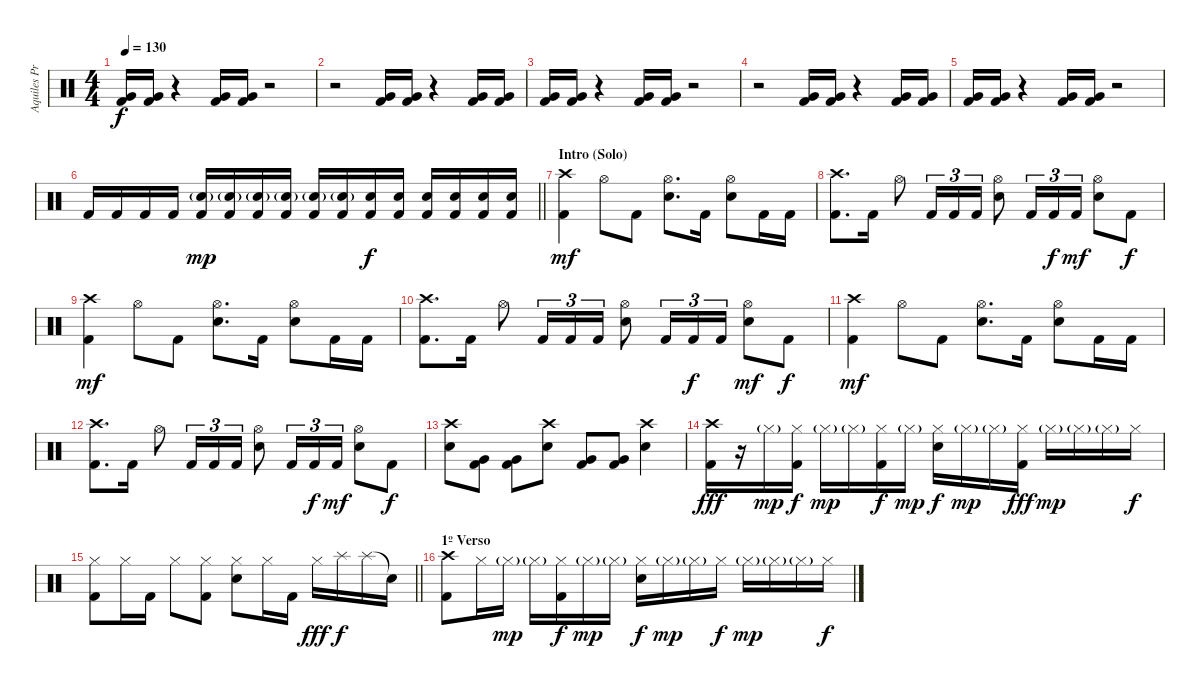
\track ("Aquiles Priester" "Aquiles Pr") {instrument percussion}
\staff {score}
\articulation defaults
\ts (4 4)
\tempo 130
\clef neutral
\ks c
("Very Low Tom (hit)" "Kick (hit) 2").16{dy f} ("Very Low Tom (hit)" "Kick (hit) 2").16 r.4 ("Very Low Tom (hit)" "Kick (hit) 2").16 ("Very Low Tom (hit)" "Kick (hit) 2").16 r.2 |
r.2 ("Very Low Tom (hit)" "Kick (hit) 2").16 ("Very Low Tom (hit)" "Kick (hit) 2").16 r.4 ("Very Low Tom (hit)" "Kick (hit) 2").16 ("Very Low Tom (hit)" "Kick (hit) 2").16 |
("Very Low Tom (hit)" "Kick (hit) 2").16 ("Very Low Tom (hit)" "Kick (hit) 2").16 r.4 ("Very Low Tom (hit)" "Kick (hit) 2").16 ("Very Low Tom (hit)" "Kick (hit) 2").16 r.2 |
r.2 ("Very Low Tom (hit)" "Kick (hit) 2").16 ("Very Low Tom (hit)" "Kick (hit) 2").16 r.4 ("Very Low Tom (hit)" "Kick (hit) 2").16 ("Very Low Tom (hit)" "Kick (hit) 2").16 |
("Very Low Tom (hit)" "Kick (hit) 2").16 ("Very Low Tom (hit)" "Kick (hit) 2").16 r.4 ("Very Low Tom (hit)" "Kick (hit) 2").16 ("Very Low Tom (hit)" "Kick (hit) 2").16 r.2 |
\barLineRight lightlight "Kick (hit) 2".16 "Kick (hit) 2".16 "Kick (hit) 2".16 "Kick (hit) 2".16
("Electric Snare (hit)"{g} "Kick (hit) 2").16{dy mp} ("Electric Snare (hit)"{g} "Kick (hit) 2").16 ("Electric Snare (hit)"{g} "Kick (hit) 2").16 ("Electric Snare (hit)"{g} "Kick (hit) 2").16 ("Electric Snare (hit)"{g} "Kick (hit) 2").16 ("Electric Snare (hit)"{g} "Kick (hit) 2").16 ("Electric Snare (hit)" "Kick (hit) 2").16{dy f} ("Electric Snare (hit)" "Kick (hit) 2").16 ("Electric Snare (hit)" "Kick (hit) 2").16 ("Electric Snare (hit)" "Kick (hit) 2").16 ("Electric Snare (hit)" "Kick (hit) 2").16 ("Electric Snare (hit)" "Kick (hit) 2").16 |
\section ("" "Intro (Solo)")
("Crash high (hit)" "Kick (hit) 2").4{dy mf} "Hi-Hat (open)".8 "Kick (hit) 2".8 ("Hi-Hat (open)" "Electric Snare (hit)").8{d} "Kick (hit) 2".16 ("Hi-Hat (open)" "Electric Snare (hit)").8 "Kick (hit) 2".16 "Kick (hit) 2".16 |
("Crash high (hit)" "Kick (hit) 2").8{d} "Kick (hit) 2".16 "Hi-Hat (open)".8 "Kick (hit) 2".16{tu (3 2)} "Kick (hit) 2".16{tu (3 2)} "Kick (hit) 2".16{tu (3 2)} ("Hi-Hat (open)" "Electric Snare (hit)").8 "Kick (hit) 2".16{tu (3 2)} "Kick (hit) 2".16{tu (3 2) dy f} "Kick (hit) 2".16{tu (3 2) dy mf} ("Hi-Hat (open)" "Electric Snare (hit)").8 "Kick (hit) 2".8{dy f} |
("Crash high (hit)" "Kick (hit) 2").4{dy mf} "Hi-Hat (open)".8 "Kick (hit) 2".8 ("Hi-Hat (open)" "Electric Snare (hit)").8{d} "Kick (hit) 2".16 ("Hi-Hat (open)" "Electric Snare (hit)").8 "Kick (hit) 2".16 "Kick (hit) 2".16 |
("Crash high (hit)" "Kick (hit) 2").8{d} "Kick (hit) 2".16 "Hi-Hat (open)".8 "Kick (hit) 2".16{tu (3 2)} "Kick (hit) 2".16{tu (3 2)} "Kick (hit) 2".16{tu (3 2)} ("Hi-Hat (open)" "Electric Snare (hit)").8 "Kick (hit) 2".16{tu (3 2)} "Kick (hit) 2".16{tu (3 2) dy f} "Kick (hit) 2".16{tu (3 2)} ("Hi-Hat (open)" "Electric Snare (hit)").8{dy mf} "Kick (hit) 2".8{dy f} |
("Crash high (hit)" "Kick (hit) 2").4{dy mf} "Hi-Hat (open)".8 "Kick (hit) 2".8 ("Hi-Hat (open)" "Electric Snare (hit)").8{d} "Kick (hit) 2".16 ("Hi-Hat (open)" "Electric Snare (hit)").8 "Kick (hit) 2".16 "Kick (hit) 2".16 |
("Crash high (hit)" "Kick (hit) 2").8{d} "Kick (hit) 2".16 "Hi-Hat (open)".8 "Kick (hit) 2".16{tu (3 2)} "Kick (hit) 2".16{tu (3 2)} "Kick (hit) 2".16{tu (3 2)} ("Hi-Hat (open)" "Electric Snare (hit)").8 "Kick (hit) 2".16{tu (3 2)} "Kick (hit) 2".16{tu (3 2) dy f} "Kick (hit) 2".16{tu (3 2) dy mf} ("Hi-Hat (open)" "Electric Snare (hit)").8 "Kick (hit) 2".8{dy f} |
("Crash high (hit)" "Electric Snare (hit)").8 ("Very Low Tom (hit)" "Kick (hit) 2").8 ("Very Low Tom (hit)" "Kick (hit) 2").8 ("Crash high (hit)" "Electric Snare (hit)").8 ("Very Low Tom (hit)" "Kick (hit) 2").8 ("Very Low Tom (hit)" "Kick (hit) 2").8 ("Crash high (hit)" "Electric Snare (hit)").4 |
("Crash high (hit)" "Kick (hit) 2").16{dy fff} r.16 "Hi-Hat (closed)"{g}.16{dy mp} ("Hi-Hat (closed)" "Kick (hit) 2").16{dy f} "Hi-Hat (closed)"{g}.16{dy mp} "Hi-Hat (closed)"{g}.16 ("Hi-Hat (closed)" "Kick (hit) 2").16{dy f} "Hi-Hat (closed)"{g}.16{dy mp} ("Hi-Hat (closed)" "Electric Snare (hit)").16{dy f} "Hi-Hat (closed)"{g}.16{dy mp} "Hi-Hat (closed)"{g}.16 ("Hi-Hat (closed)" "Kick (hit) 2").16{dy fff} "Hi-Hat (closed)"{g}.16{dy mp} "Hi-Hat (closed)"{g}.16 "Hi-Hat (closed)"{g}.16 "Hi-Hat (closed)".16{dy f} |
\barLineRight lightlight
("Hi-Hat (closed)" "Kick (hit) 2").8 "Hi-Hat (closed)".16 "Kick (hit) 2".16 "Hi-Hat (closed)".8 ("Hi-Hat (closed)" "Kick (hit) 2").8 ("Hi-Hat (closed)" "Electric Snare (hit)").8 "Hi-Hat (closed)".16 "Kick (hit) 2".16 "Hi-Hat (closed)".16{dy fff} "Splash (hit)".16{dy f} "Splash (hit)".16 "Snare (hit)"{t}.16 |
\section ("" "1º Verso")
("Crash high (hit)" "Kick (hit) 2").8 "Hi-Hat (closed)".16 "Hi-Hat (closed)"{g}.16{dy mp} "Hi-Hat (closed)"{g}.16 ("Hi-Hat (closed)" "Kick (hit) 2").16{dy f} "Hi-Hat (closed)"{g}.16{dy mp} "Hi-Hat (closed)"{g}.16 ("Hi-Hat (closed)" "Electric Snare (hit)").16{dy f} "Hi-Hat (closed)"{g}.16{dy mp} "Hi-Hat (closed)"{g}.16 "Hi-Hat (closed)".16{dy f} "Hi-Hat (closed)"{g}.16{dy mp} "Hi-Hat (closed)"{g}.16 "Hi-Hat (closed)"{g}.16 "Hi-Hat (closed)".16{dy f}
